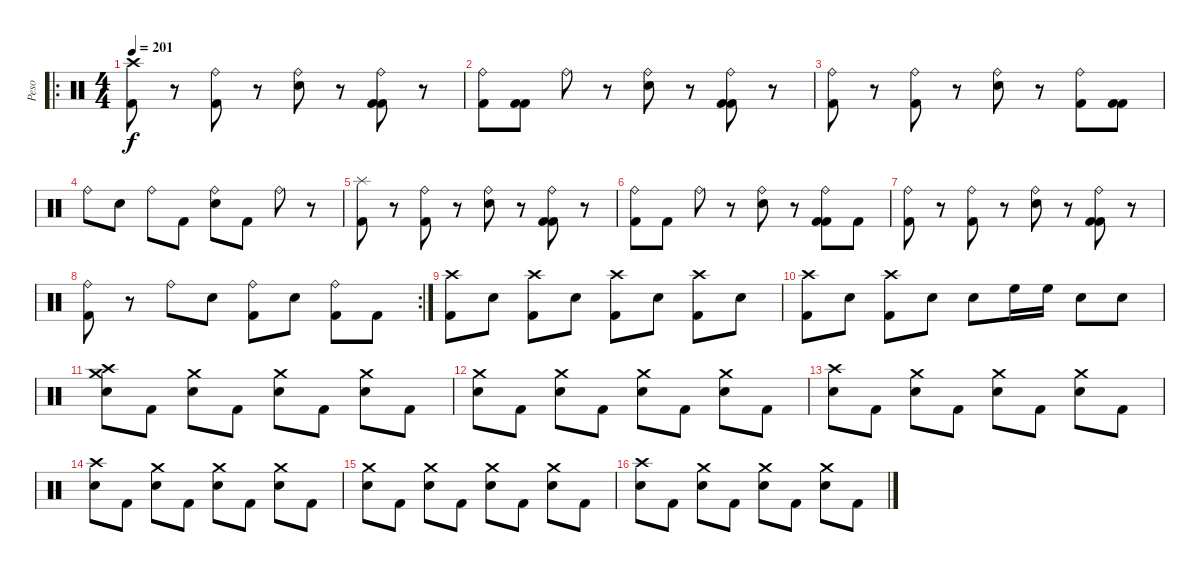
\track ("Peso" "Peso") {instrument percussion}
\staff {score}
\articulation defaults
\ro
\ts (4 4)
\tempo 201
\clef neutral
\ks c
("Crash high (hit)" "Kick (hit) 2").8{dy f} r.8 ("Ride (bell)" "Kick (hit) 2").8 r.8 ("Ride (bell)" "Snare (hit) 2").8 r.8 ("Ride (bell)" "Kick (hit) 2" "Kick (hit) 2").8 r.8 |
("Ride (bell)" "Kick (hit) 2").8 ("Kick (hit) 2" "Kick (hit) 2").8 "Ride (bell)".8 r.8 ("Ride (bell)" "Snare (hit) 2").8 r.8 ("Ride (bell)" "Kick (hit) 2" "Kick (hit) 2").8 r.8 |
("Ride (bell)" "Kick (hit) 2").8 r.8 ("Ride (bell)" "Kick (hit) 2").8 r.8 ("Ride (bell)" "Snare (hit) 2").8 r.8 ("Ride (bell)" "Kick (hit) 2").8 ("Kick (hit) 2" "Kick (hit) 2").8 |
"Ride (bell)".8 "Snare (hit) 2".8 "Ride (bell)".8 "Kick (hit) 2".8 ("Ride (bell)" "Snare (hit) 2").8 "Kick (hit) 2".8 "Ride (bell)".8 r.8 |
("Splash (hit)" "Kick (hit) 2").8 r.8 ("Ride (bell)" "Kick (hit) 2").8 r.8 ("Ride (bell)" "Snare (hit) 2").8 r.8 ("Ride (bell)" "Kick (hit) 2" "Kick (hit) 2").8 r.8 |
("Ride (bell)" "Kick (hit) 2").8 "Kick (hit) 2".8 "Ride (bell)".8 r.8 ("Ride (bell)" "Snare (hit) 2").8 r.8 ("Ride (bell)" "Kick (hit) 2" "Kick (hit) 2").8 "Kick (hit) 2".8 |
("Ride (bell)" "Kick (hit) 2").8 r.8 ("Ride (bell)" "Kick (hit) 2").8 r.8 ("Ride (bell)" "Snare (hit) 2").8 r.8 ("Ride (bell)" "Kick (hit) 2" "Kick (hit) 2").8 r.8 |
\rc 2
("Ride (bell)" "Kick (hit) 2").8 r.8 "Ride (bell)".8 "Snare (hit) 2".8 ("Ride (bell)" "Kick (hit) 2").8 "Snare (hit) 2".8 ("Ride (bell)" "Kick (hit) 2").8 "Kick (hit) 2".8 |
("Crash high (hit)" "Kick (hit) 2").8 "Snare (hit) 2".8 ("Crash high (hit)" "Kick (hit) 2").8 "Snare (hit) 2".8 ("Crash high (hit)" "Kick (hit) 2").8 "Snare (hit) 2".8 ("Crash high (hit)" "Kick (hit) 2").8 "Snare (hit) 2".8 |
("Crash high (hit)" "Kick (hit) 2").8 "Snare (hit) 2".8 ("Crash high (hit)" "Kick (hit) 2").8 "Snare (hit) 2".8 "Snare (hit) 2".8 "High Floor Tom (hit)".16 "High Floor Tom (hit)".16 "Snare (hit) 2".8 "Snare (hit) 2".8 |
("Crash high (hit)" "Crash medium (hit)" "Snare (hit) 2").8 "Kick (hit) 2".8 ("Crash medium (hit)" "Snare (hit) 2").8 "Kick (hit) 2".8 ("Crash medium (hit)" "Snare (hit) 2").8 "Kick (hit) 2".8 ("Crash medium (hit)" "Snare (hit) 2").8 "Kick (hit) 2".8 |
("Crash medium (hit)" "Snare (hit) 2").8 "Kick (hit) 2".8 ("Crash medium (hit)" "Snare (hit) 2").8 "Kick (hit) 2".8 ("Crash medium (hit)" "Snare (hit) 2").8 "Kick (hit) 2".8 ("Crash medium (hit)" "Snare (hit) 2").8 "Kick (hit) 2".8 |
("Crash high (hit)" "Snare (hit) 2").8 "Kick (hit) 2".8 ("Crash medium (hit)" "Snare (hit) 2").8 "Kick (hit) 2".8 ("Crash medium (hit)" "Snare (hit) 2").8 "Kick (hit) 2".8 ("Crash medium (hit)" "Snare (hit) 2").8 "Kick (hit) 2".8 |
("Crash high (hit)" "Snare (hit) 2").8 "Kick (hit) 2".8 ("Crash medium (hit)" "Snare (hit) 2").8 "Kick (hit) 2".8 ("Crash medium (hit)" "Snare (hit) 2").8 "Kick (hit) 2".8 ("Crash medium (hit)" "Snare (hit) 2").8 "Kick (hit) 2".8 |
("Crash medium (hit)" "Snare (hit) 2").8 "Kick (hit) 2".8 ("Crash medium (hit)" "Snare (hit) 2").8 "Kick (hit) 2".8 ("Crash medium (hit)" "Snare (hit) 2").8 "Kick (hit) 2".8 ("Crash medium (hit)" "Snare (hit) 2").8 "Kick (hit) 2".8 |
("Crash high (hit)" "Snare (hit) 2").8 "Kick (hit) 2".8 ("Crash medium (hit)" "Snare (hit) 2").8 "Kick (hit) 2".8 ("Crash medium (hit)" "Snare (hit) 2").8 "Kick (hit) 2".8 ("Crash medium (hit)" "Snare (hit) 2").8 "Kick (hit) 2".8
